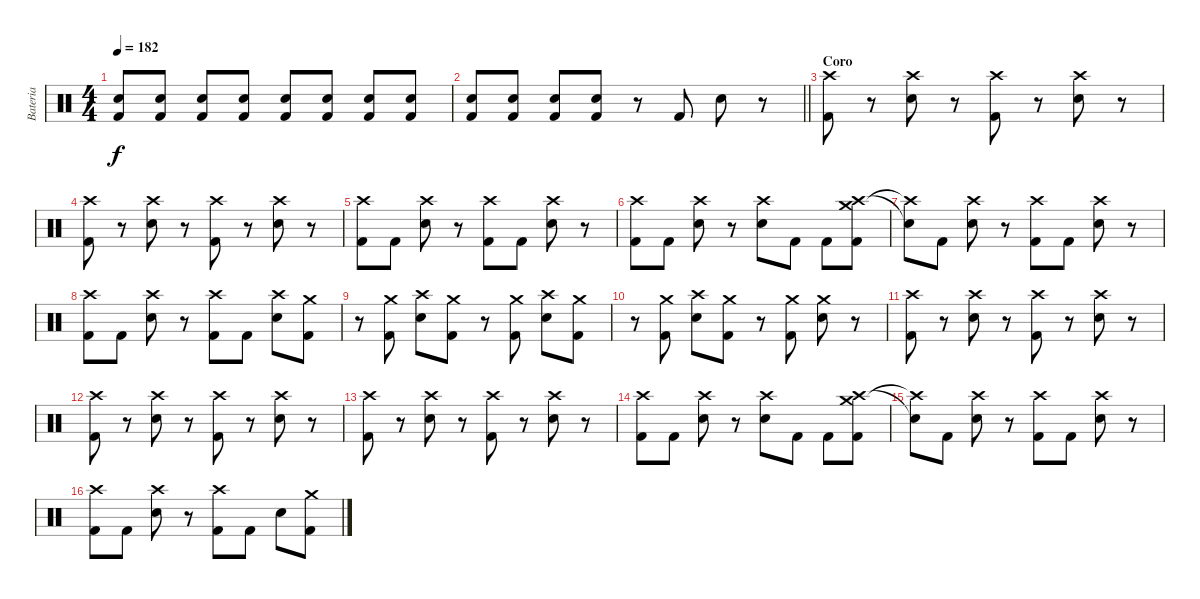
\track ("Bateria" "Bateria") {instrument percussion}
\staff {score}
\articulation defaults
\ts (4 4)
\tempo 182
\clef neutral
\ks c
("Electric Snare (hit)" "Kick (hit) 2").8{dy f volume 12} ("Electric Snare (hit)" "Kick (hit) 2").8{volume 16} ("Electric Snare (hit)" "Kick (hit) 2").8 ("Electric Snare (hit)" "Kick (hit) 2").8 ("Electric Snare (hit)" "Kick (hit) 2").8 ("Electric Snare (hit)" "Kick (hit) 2").8 ("Electric Snare (hit)" "Kick (hit) 2").8 ("Electric Snare (hit)" "Kick (hit) 2").8 |
\barLineRight lightlight
("Electric Snare (hit)" "Kick (hit) 2").8 ("Electric Snare (hit)" "Kick (hit) 2").8 ("Electric Snare (hit)" "Kick (hit) 2").8 ("Electric Snare (hit)" "Kick (hit) 2").8 r.8 "Kick (hit) 2".8 "Electric Snare (hit)".8 r.8 |
\section ("" "Coro")
("Crash high (hit)" "Kick (hit) 2").8 r.8 ("Crash high (hit)" "Electric Snare (hit)").8 r.8 ("Crash high (hit)" "Kick (hit) 2").8 r.8 ("Crash high (hit)" "Electric Snare (hit)").8 r.8 |
("Crash high (hit)" "Kick (hit) 2").8 r.8 ("Crash high (hit)" "Electric Snare (hit)").8 r.8 ("Crash high (hit)" "Kick (hit) 2").8 r.8 ("Crash high (hit)" "Electric Snare (hit)").8 r.8 |
("Crash high (hit)" "Kick (hit) 2").8 "Kick (hit) 2".8 ("Crash high (hit)" "Electric Snare (hit)").8 r.8 ("Crash high (hit)" "Kick (hit) 2").8 "Kick (hit) 2".8 ("Crash high (hit)" "Electric Snare (hit)").8 r.8 |
("Crash high (hit)" "Kick (hit) 2").8 "Kick (hit) 2".8 ("Crash high (hit)" "Electric Snare (hit)").8 r.8 ("Crash high (hit)" "Electric Snare (hit)").8 "Kick (hit) 2".8 "Kick (hit) 2".8 ("Crash high (hit)" "Crash medium (hit)" "Kick (hit) 2").8 |
("Snare (hit)"{t} "Crash high (hit)"{t}).8 "Kick (hit) 2".8 ("Crash high (hit)" "Electric Snare (hit)").8 r.8 ("Crash high (hit)" "Kick (hit) 2").8 "Kick (hit) 2".8 ("Crash high (hit)" "Electric Snare (hit)").8 r.8 |
("Crash high (hit)" "Kick (hit) 2").8 "Kick (hit) 2".8 ("Crash high (hit)" "Electric Snare (hit)").8 r.8 ("Crash high (hit)" "Kick (hit) 2").8 "Kick (hit) 2".8 ("Crash high (hit)" "Electric Snare (hit)").8 ("Crash medium (hit)" "Kick (hit) 2").8 |
r.8 ("Crash medium (hit)" "Kick (hit) 2").8 ("Crash high (hit)" "Electric Snare (hit)").8 ("Crash medium (hit)" "Kick (hit) 2").8 r.8 ("Crash medium (hit)" "Kick (hit) 2").8 ("Crash high (hit)" "Electric Snare (hit)").8 ("Crash medium (hit)" "Kick (hit) 2").8 |
r.8 ("Crash medium (hit)" "Kick (hit) 2").8 ("Crash high (hit)" "Electric Snare (hit)").8 ("Crash medium (hit)" "Kick (hit) 2").8 r.8 ("Crash medium (hit)" "Kick (hit) 2").8 ("Crash medium (hit)" "Electric Snare (hit)").8 r.8 |
("Crash high (hit)" "Kick (hit) 2").8 r.8 ("Crash high (hit)" "Electric Snare (hit)").8 r.8 ("Crash high (hit)" "Kick (hit) 2").8 r.8 ("Crash high (hit)" "Electric Snare (hit)").8 r.8 |
("Crash high (hit)" "Kick (hit) 2").8 r.8 ("Crash high (hit)" "Electric Snare (hit)").8 r.8 ("Crash high (hit)" "Kick (hit) 2").8 r.8 ("Crash high (hit)" "Electric Snare (hit)").8 r.8 |
("Crash high (hit)" "Kick (hit) 2").8 r.8 ("Crash high (hit)" "Electric Snare (hit)").8 r.8 ("Crash high (hit)" "Kick (hit) 2").8 r.8 ("Crash high (hit)" "Electric Snare (hit)").8 r.8 |
("Crash high (hit)" "Kick (hit) 2").8 "Kick (hit) 2".8 ("Crash high (hit)" "Electric Snare (hit)").8 r.8 ("Crash high (hit)" "Electric Snare (hit)").8 "Kick (hit) 2".8 "Kick (hit) 2".8 ("Crash high (hit)" "Crash medium (hit)" "Kick (hit) 2").8 |
("Snare (hit)"{t} "Crash high (hit)"{t}).8 "Kick (hit) 2".8 ("Crash high (hit)" "Electric Snare (hit)").8 r.8 ("Crash high (hit)" "Kick (hit) 2").8 "Kick (hit) 2".8 ("Crash high (hit)" "Electric Snare (hit)").8 r.8 |
("Crash high (hit)" "Kick (hit) 2").8 "Kick (hit) 2".8 ("Crash high (hit)" "Electric Snare (hit)").8 r.8 ("Crash high (hit)" "Kick (hit) 2").8 "Kick (hit) 2".8 "Electric Snare (hit)".8 ("Crash medium (hit)" "Kick (hit) 2").8
